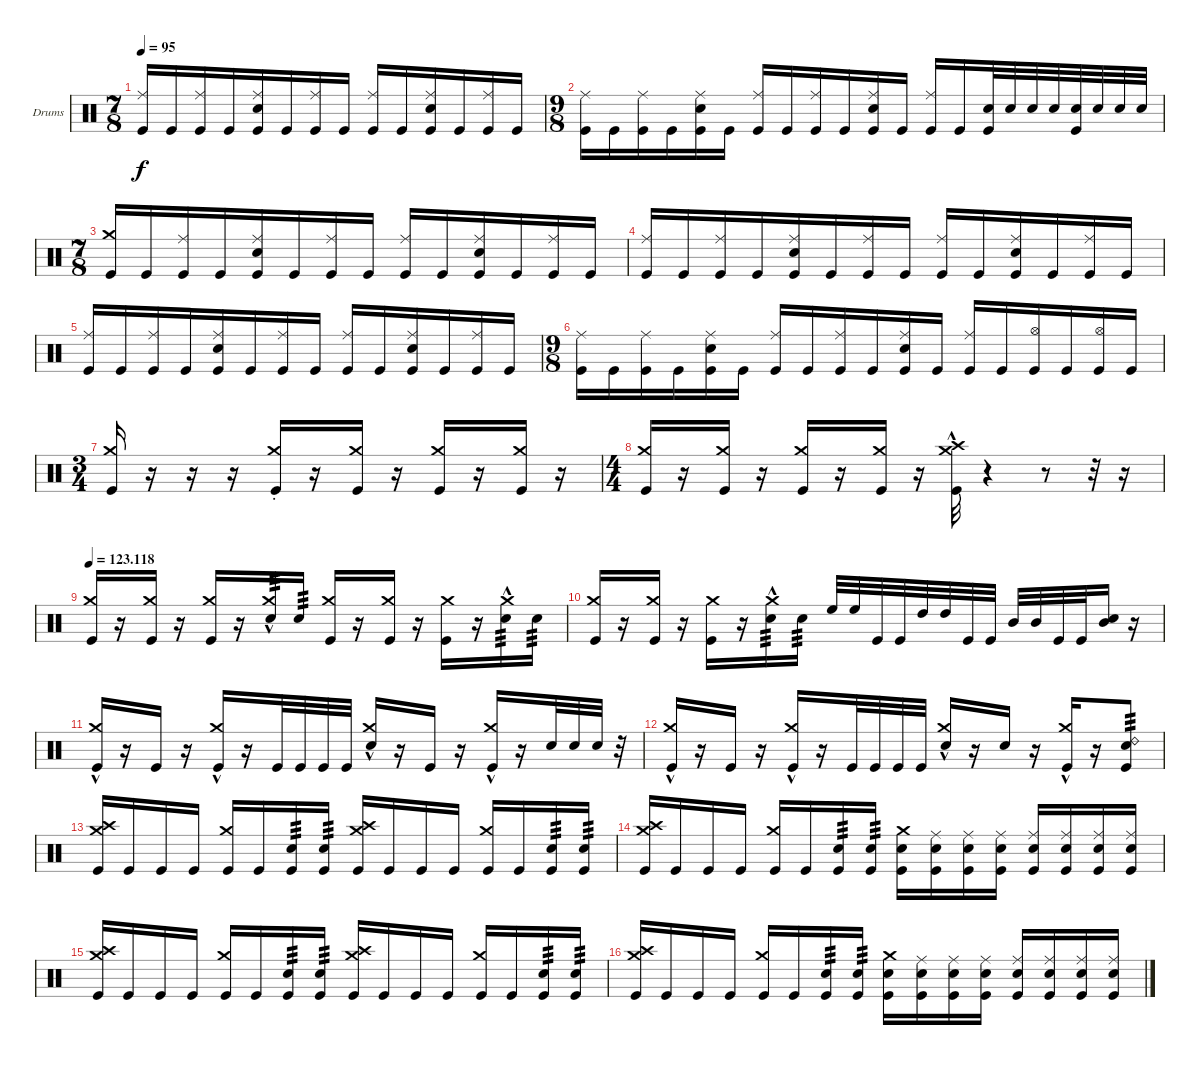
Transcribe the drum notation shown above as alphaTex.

\defaultSystemsLayout 4
\bracketExtendMode groupsimilarinstruments
\firstSystemTrackNameOrientation horizontal
\otherSystemsTrackNameOrientation horizontal
\track ("Drumkit" "Drums") {instrument percussion}
\staff {score}
\articulation defaults
\ts (7 8)
\tempo 95
\clef neutral
\ks c
("Kick (hit)" "Ride (middle)").16{dy f} "Kick (hit)".16 ("Kick (hit)" "Ride (middle)").16 "Kick (hit)".16 ("Kick (hit)" "Ride (middle)" "Snare (hit) 2").16 "Kick (hit)".16 ("Kick (hit)" "Ride (middle)").16{beam invert} "Kick (hit)".16 ("Kick (hit)" "Ride (middle)").16 "Kick (hit)".16 ("Kick (hit)" "Ride (middle)" "Snare (hit) 2").16{beam invert} "Kick (hit)".16 ("Kick (hit)" "Ride (middle)").16 "Kick (hit)".16 |
\ts (9 8)
("Kick (hit)" "Ride (middle)").16 "Kick (hit)".16 ("Kick (hit)" "Ride (middle)").16 "Kick (hit)".16 ("Kick (hit)" "Snare (hit) 2" "Ride (middle)").16 "Kick (hit)".16 ("Kick (hit)" "Ride (middle)").16 "Kick (hit)".16 ("Kick (hit)" "Ride (middle)").16 "Kick (hit)".16 ("Kick (hit)" "Snare (hit) 2" "Ride (middle)").16 "Kick (hit)".16 ("Ride (middle)" "Kick (hit)").16{beam invert} "Kick (hit)".16 ("Kick (hit)" "Snare (hit) 2").32 "Snare (hit) 2".32 "Snare (hit) 2".32 "Snare (hit) 2".32 ("Snare (hit) 2" "Kick (hit)").32 "Snare (hit) 2".32 "Snare (hit) 2".32 "Snare (hit) 2".32 |
\ts (7 8)
("Crash medium (hit)" "Kick (hit)").16{beam invert} "Kick (hit)".16 ("Kick (hit)" "Ride (middle)").16 "Kick (hit)".16 ("Kick (hit)" "Ride (middle)" "Snare (hit) 2").16 "Kick (hit)".16 ("Kick (hit)" "Ride (middle)").16{beam invert} "Kick (hit)".16 ("Kick (hit)" "Ride (middle)").16 "Kick (hit)".16 ("Kick (hit)" "Ride (middle)" "Snare (hit) 2").16{beam invert} "Kick (hit)".16 ("Kick (hit)" "Ride (middle)").16 "Kick (hit)".16 |
("Kick (hit)" "Ride (middle)").16 "Kick (hit)".16 ("Kick (hit)" "Ride (middle)").16 "Kick (hit)".16 ("Kick (hit)" "Ride (middle)" "Snare (hit) 2").16 "Kick (hit)".16 ("Kick (hit)" "Ride (middle)").16{beam invert} "Kick (hit)".16 ("Kick (hit)" "Ride (middle)").16 "Kick (hit)".16 ("Kick (hit)" "Ride (middle)" "Snare (hit) 2").16{beam invert} "Kick (hit)".16 ("Kick (hit)" "Ride (middle)").16 "Kick (hit)".16 |
("Kick (hit)" "Ride (middle)").16 "Kick (hit)".16 ("Kick (hit)" "Ride (middle)").16 "Kick (hit)".16 ("Kick (hit)" "Ride (middle)" "Snare (hit) 2").16 "Kick (hit)".16 ("Kick (hit)" "Ride (middle)").16{beam invert} "Kick (hit)".16 ("Kick (hit)" "Ride (middle)").16 "Kick (hit)".16 ("Kick (hit)" "Ride (middle)" "Snare (hit) 2").16{beam invert} "Kick (hit)".16 ("Kick (hit)" "Ride (middle)").16 "Kick (hit)".16 |
\ts (9 8)
("Kick (hit)" "Ride (middle)").16 "Kick (hit)".16 ("Kick (hit)" "Ride (middle)").16 "Kick (hit)".16 ("Kick (hit)" "Snare (hit) 2" "Ride (middle)").16 "Kick (hit)".16 ("Kick (hit)" "Ride (middle)").16 "Kick (hit)".16 ("Kick (hit)" "Ride (middle)").16 "Kick (hit)".16 ("Kick (hit)" "Snare (hit) 2" "Ride (middle)").16 "Kick (hit)".16 ("Ride (middle)" "Kick (hit)").16{beam invert} "Kick (hit)".16 ("Kick (hit)" "Hi-Hat (open)").16 "Kick (hit)".16 ("Kick (hit)" "Hi-Hat (open)").16 "Kick (hit)".16 |
\ts (3 4)
("Crash medium (hit)" "Kick (hit)").16{beam invert} r.16 r.16 r.16 ("Kick (hit)" "Crash medium (hit)"{st}).16{beam invert} r.16 ("Kick (hit)" "Crash medium (hit)").16 r.16{beam invert} ("Kick (hit)" "Crash medium (hit)").16{beam invert} r.16 ("Kick (hit)" "Crash medium (hit)").16 r.16 |
\ts (4 4)
("Kick (hit)" "Crash medium (hit)").16{beam invert} r.16 ("Kick (hit)" "Crash medium (hit)").16 r.16{beam invert} ("Kick (hit)" "Crash medium (hit)").16{beam invert} r.16 ("Kick (hit)" "Crash medium (hit)").16 r.16 ("Kick (hit)" "Crash medium (hit)"{hac} "Crash high (hit)").32 r.4 r.8 r.32 r.16 |
\tempo
123.118 ("Kick (hit)" "Crash medium (hit)").16{beam invert} r.16 ("Kick (hit)" "Crash medium (hit)").16 r.16 ("Kick (hit)" "Crash medium (hit)").16 r.16 ("Crash medium (hit)"{hac} "Snare (hit) 2").16{tp 3} "Snare (hit) 2".16{tp 3} ("Kick (hit)" "Crash medium (hit)").16{beam invert} r.16 ("Crash medium (hit)" "Kick (hit)").16 r.16 ("Crash medium (hit)" "Kick (hit)").16 r.16 ("Snare (hit) 2" "Crash medium (hit)"{hac}).16{tp 3} "Snare (hit) 2".16{tp 3} |
("Kick (hit)" "Crash medium (hit)").16{beam invert} r.16 ("Kick (hit)" "Crash medium (hit)").16 r.16 ("Kick (hit)" "Crash medium (hit)").16 r.16 ("Crash medium (hit)"{hac} "Snare (hit) 2").16{tp 3} "Snare (hit) 2".16{tp 3} "High Floor Tom (hit)".32 "High Floor Tom (hit)".32 "Kick (hit)".32 "Kick (hit)".32 "High Tom (hit)".32 "High Tom (hit)".32 "Kick (hit)".32 "Kick (hit)".32 "Mid Tom (hit)".32 "Mid Tom (hit)".32 "Kick (hit)".32 "Kick (hit)".32 ("Mid Tom (hit)" "Snare (hit) 2").16 r.16 |
("Crash medium (hit)"{hac} "Kick (hit)").16{beam invert} r.16 "Kick (hit)".16 r.16 ("Kick (hit)" "Crash medium (hit)"{hac}).16{beam invert} r.16 "Kick (hit)".32 "Kick (hit)".32 "Kick (hit)".32 "Kick (hit)".32 ("Snare (hit) 2" "Crash medium (hit)"{hac}).16 r.16 "Kick (hit)".16 r.16 ("Kick (hit)" "Crash medium (hit)"{hac}).16{beam invert} r.16 "Snare (hit) 2".32 "Snare (hit) 2".32 "Snare (hit) 2".32 r.32 |
("Crash medium (hit)"{hac} "Kick (hit)").16{beam invert} r.16 "Kick (hit)".16 r.16 ("Kick (hit)" "Crash medium (hit)"{hac}).16{beam invert} r.16 "Kick (hit)".32 "Kick (hit)".32 "Kick (hit)".32 "Kick (hit)".32 ("Snare (hit) 2" "Crash medium (hit)"{hac}).16 r.16 "Snare (hit) 2".16 r.16{beam invert} ("Crash medium (hit)"{hac} "Kick (hit)").16{beam invert} r.16 ("Kick (hit)" "Snare (hit) 2" "Ride (bell) 2").8{tp 3} |
("Crash medium (hit)" "Crash high (hit)" "Kick (hit)").16 "Kick (hit)".16 "Kick (hit)".16 "Kick (hit)".16 ("Kick (hit)" "Crash medium (hit)").16{beam invert} "Kick (hit)".16 ("Kick (hit)" "Snare (hit) 2").16{tp 3} ("Kick (hit)" "Snare (hit) 2").16{tp 3} ("Crash medium (hit)" "Crash high (hit)" "Kick (hit)").16 "Kick (hit)".16 "Kick (hit)".16 "Kick (hit)".16 ("Kick (hit)" "Crash medium (hit)").16{beam invert} "Kick (hit)".16 ("Kick (hit)" "Snare (hit) 2").16{tp 3} ("Kick (hit)" "Snare (hit) 2").16{tp 3} |
("Crash medium (hit)" "Crash high (hit)" "Kick (hit)").16 "Kick (hit)".16 "Kick (hit)".16 "Kick (hit)".16 ("Kick (hit)" "Crash medium (hit)").16{beam invert} "Kick (hit)".16 ("Kick (hit)" "Snare (hit) 2").16{tp 3} ("Kick (hit)" "Snare (hit) 2").16{tp 3} ("Kick (hit)" "Snare (hit) 2" "Crash medium (hit)").16 ("Kick (hit)" "Snare (hit) 2" "Ride (middle)").16 ("Kick (hit)" "Snare (hit) 2" "Ride (middle)").16 ("Kick (hit)" "Snare (hit) 2" "Ride (middle)").16 ("Kick (hit)" "Snare (hit) 2" "Ride (middle)").16 ("Kick (hit)" "Snare (hit) 2" "Ride (middle)").16 ("Kick (hit)" "Snare (hit) 2" "Ride (middle)").16 ("Kick (hit)" "Snare (hit) 2" "Ride (middle)").16 |
("Crash medium (hit)" "Crash high (hit)" "Kick (hit)").16 "Kick (hit)".16 "Kick (hit)".16 "Kick (hit)".16 ("Kick (hit)" "Crash medium (hit)").16{beam invert} "Kick (hit)".16 ("Kick (hit)" "Snare (hit) 2").16{tp 3} ("Kick (hit)" "Snare (hit) 2").16{tp 3} ("Crash medium (hit)" "Crash high (hit)" "Kick (hit)").16 "Kick (hit)".16 "Kick (hit)".16 "Kick (hit)".16 ("Kick (hit)" "Crash medium (hit)").16{beam invert} "Kick (hit)".16 ("Kick (hit)" "Snare (hit) 2").16{tp 3} ("Kick (hit)" "Snare (hit) 2").16{tp 3} |
("Crash medium (hit)" "Crash high (hit)" "Kick (hit)").16 "Kick (hit)".16 "Kick (hit)".16 "Kick (hit)".16 ("Kick (hit)" "Crash medium (hit)").16{beam invert} "Kick (hit)".16 ("Kick (hit)" "Snare (hit) 2").16{tp 3} ("Kick (hit)" "Snare (hit) 2").16{tp 3} ("Kick (hit)" "Snare (hit) 2" "Crash medium (hit)").16 ("Kick (hit)" "Snare (hit) 2" "Ride (middle)").16 ("Kick (hit)" "Snare (hit) 2" "Ride (middle)").16 ("Kick (hit)" "Snare (hit) 2" "Ride (middle)").16 ("Kick (hit)" "Snare (hit) 2" "Ride (middle)").16 ("Kick (hit)" "Snare (hit) 2" "Ride (middle)").16 ("Kick (hit)" "Snare (hit) 2" "Ride (middle)").16 ("Kick (hit)" "Snare (hit) 2" "Ride (middle)").16
